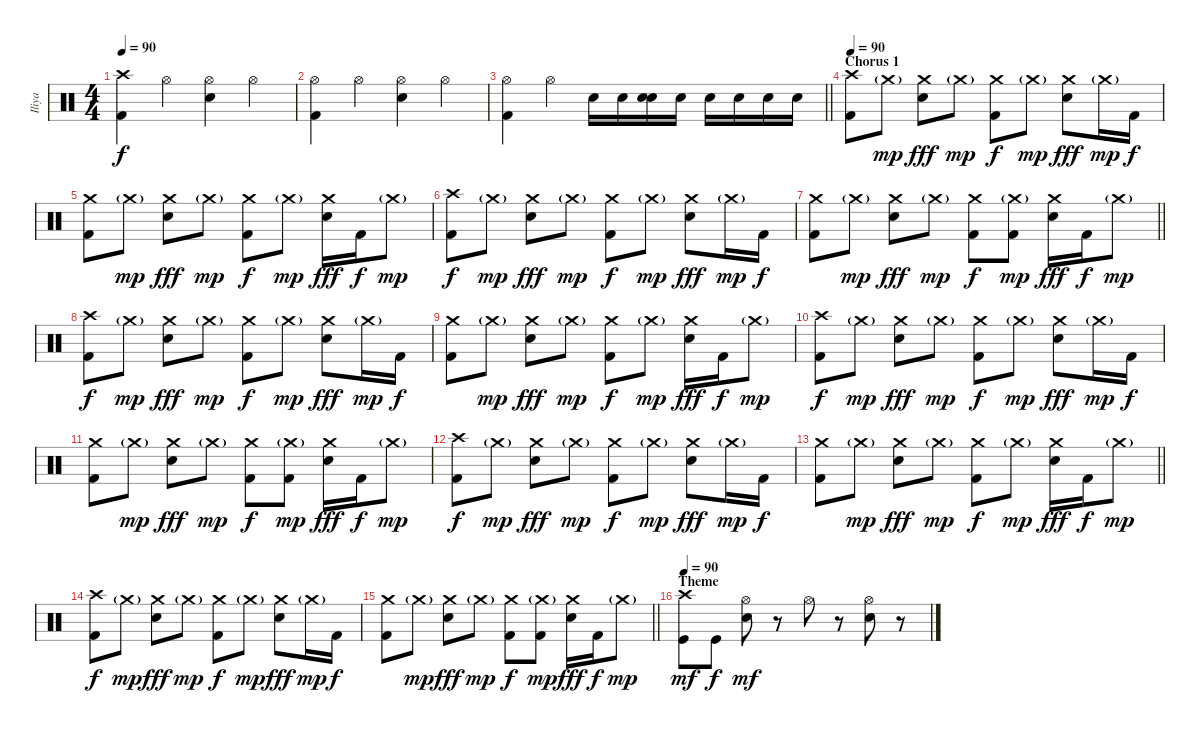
\track ("Iliya" "Iliya") {instrument percussion}
\staff {score}
\articulation defaults
\ts (4 4)
\tempo 90
\clef neutral
\ks c
("Kick (hit) 2" "Crash high (hit)").4{dy f} "Hi-Hat (open)".4 ("Electric Snare (hit)" "Hi-Hat (open)").4 "Hi-Hat (open)".4 |
("Hi-Hat (open)" "Kick (hit) 2").4 "Hi-Hat (open)".4 ("Electric Snare (hit)" "Hi-Hat (open)").4 "Hi-Hat (open)".4 |
\barLineRight lightlight
("Hi-Hat (open)" "Kick (hit) 2").4 "Hi-Hat (open)".4 "Snare (hit) 2".16 "Snare (hit) 2".16 ("Snare (hit) 2" "Snare (hit) 2").16 "Snare (hit) 2".16 "Snare (hit) 2".16 "Snare (hit) 2".16 "Snare (hit) 2".16 "Snare (hit) 2".16 |
\section ("" "Chorus 1")
\tempo 90
("Crash high (hit)" "Kick (hit) 2").8 "Crash medium (hit)"{g}.8{dy mp} ("Crash medium (hit)" "Snare (hit) 2").8{dy fff} "Crash medium (hit)"{g}.8{dy mp} ("Crash medium (hit)" "Kick (hit) 2").8{dy f} "Crash medium (hit)"{g}.8{dy mp} ("Crash medium (hit)" "Snare (hit) 2").8{dy fff} "Crash medium (hit)"{g}.16{dy mp} "Kick (hit) 2".16{dy f} |
("Crash medium (hit)" "Kick (hit) 2").8 "Crash medium (hit)"{g}.8{dy mp} ("Crash medium (hit)" "Snare (hit) 2").8{dy fff} "Crash medium (hit)"{g}.8{dy mp} ("Crash medium (hit)" "Kick (hit) 2").8{dy f} "Crash medium (hit)"{g}.8{dy mp} ("Crash medium (hit)" "Snare (hit) 2").16{dy fff} "Kick (hit) 2".16{dy f} "Crash medium (hit)"{g}.8{dy mp} |
("Crash high (hit)" "Kick (hit) 2").8{dy f} "Crash medium (hit)"{g}.8{dy mp} ("Crash medium (hit)" "Snare (hit) 2").8{dy fff} "Crash medium (hit)"{g}.8{dy mp} ("Crash medium (hit)" "Kick (hit) 2").8{dy f} "Crash medium (hit)"{g}.8{dy mp} ("Crash medium (hit)" "Snare (hit) 2").8{dy fff} "Crash medium (hit)"{g}.16{dy mp} "Kick (hit) 2".16{dy f} |
\barLineRight lightlight
("Crash medium (hit)" "Kick (hit) 2").8 "Crash medium (hit)"{g}.8{dy mp} ("Crash medium (hit)" "Snare (hit) 2").8{dy fff} "Crash medium (hit)"{g}.8{dy mp} ("Crash medium (hit)" "Kick (hit) 2").8{dy f} ("Crash medium (hit)"{g} "Kick (hit) 2").8{dy mp} ("Crash medium (hit)" "Snare (hit) 2").16{dy fff} "Kick (hit) 2".16{dy f} "Crash medium (hit)"{g}.8{dy mp} |
("Crash high (hit)" "Kick (hit) 2").8{dy f} "Crash medium (hit)"{g}.8{dy mp} ("Crash medium (hit)" "Snare (hit) 2").8{dy fff} "Crash medium (hit)"{g}.8{dy mp} ("Crash medium (hit)" "Kick (hit) 2").8{dy f} "Crash medium (hit)"{g}.8{dy mp} ("Crash medium (hit)" "Snare (hit) 2").8{dy fff} "Crash medium (hit)"{g}.16{dy mp} "Kick (hit) 2".16{dy f} |
("Crash medium (hit)" "Kick (hit) 2").8 "Crash medium (hit)"{g}.8{dy mp} ("Crash medium (hit)" "Snare (hit) 2").8{dy fff} "Crash medium (hit)"{g}.8{dy mp} ("Crash medium (hit)" "Kick (hit) 2").8{dy f} "Crash medium (hit)"{g}.8{dy mp} ("Crash medium (hit)" "Snare (hit) 2").16{dy fff} "Kick (hit) 2".16{dy f} "Crash medium (hit)"{g}.8{dy mp} |
("Crash high (hit)" "Kick (hit) 2").8{dy f} "Crash medium (hit)"{g}.8{dy mp} ("Crash medium (hit)" "Snare (hit) 2").8{dy fff} "Crash medium (hit)"{g}.8{dy mp} ("Crash medium (hit)" "Kick (hit) 2").8{dy f} "Crash medium (hit)"{g}.8{dy mp} ("Crash medium (hit)" "Snare (hit) 2").8{dy fff} "Crash medium (hit)"{g}.16{dy mp} "Kick (hit) 2".16{dy f} |
("Crash medium (hit)" "Kick (hit) 2").8 "Crash medium (hit)"{g}.8{dy mp} ("Crash medium (hit)" "Snare (hit) 2").8{dy fff} "Crash medium (hit)"{g}.8{dy mp} ("Crash medium (hit)" "Kick (hit) 2").8{dy f} ("Crash medium (hit)"{g} "Kick (hit) 2").8{dy mp} ("Crash medium (hit)" "Snare (hit) 2").16{dy fff} "Kick (hit) 2".16{dy f} "Crash medium (hit)"{g}.8{dy mp} |
("Crash high (hit)" "Kick (hit) 2").8{dy f} "Crash medium (hit)"{g}.8{dy mp} ("Crash medium (hit)" "Snare (hit) 2").8{dy fff} "Crash medium (hit)"{g}.8{dy mp} ("Crash medium (hit)" "Kick (hit) 2").8{dy f} "Crash medium (hit)"{g}.8{dy mp} ("Crash medium (hit)" "Snare (hit) 2").8{dy fff} "Crash medium (hit)"{g}.16{dy mp} "Kick (hit) 2".16{dy f} |
\barLineRight lightlight
("Crash medium (hit)" "Kick (hit) 2").8 "Crash medium (hit)"{g}.8{dy mp} ("Crash medium (hit)" "Snare (hit) 2").8{dy fff} "Crash medium (hit)"{g}.8{dy mp} ("Crash medium (hit)" "Kick (hit) 2").8{dy f} "Crash medium (hit)"{g}.8{dy mp} ("Crash medium (hit)" "Snare (hit) 2").16{dy fff} "Kick (hit) 2".16{dy f} "Crash medium (hit)"{g}.8{dy mp} |
("Crash high (hit)" "Kick (hit) 2").8{dy f} "Crash medium (hit)"{g}.8{dy mp} ("Crash medium (hit)" "Snare (hit) 2").8{dy fff} "Crash medium (hit)"{g}.8{dy mp} ("Crash medium (hit)" "Kick (hit) 2").8{dy f} "Crash medium (hit)"{g}.8{dy mp} ("Crash medium (hit)" "Snare (hit) 2").8{dy fff} "Crash medium (hit)"{g}.16{dy mp} "Kick (hit) 2".16{dy f} |
\barLineRight lightlight
("Crash medium (hit)" "Kick (hit) 2").8 "Crash medium (hit)"{g}.8{dy mp} ("Crash medium (hit)" "Snare (hit) 2").8{dy fff} "Crash medium (hit)"{g}.8{dy mp} ("Crash medium (hit)" "Kick (hit) 2").8{dy f} ("Crash medium (hit)"{g} "Kick (hit) 2").8{dy mp} ("Crash medium (hit)" "Snare (hit) 2").16{dy fff} "Kick (hit) 2".16{dy f} "Crash medium (hit)"{g}.8{dy mp} |
\section ("" "Theme")
\tempo 90
("Kick (hit)" "Crash high (hit)").8{dy mf} "Kick (hit)".8{dy f} ("Electric Snare (hit)" "Hi-Hat (open)").8{dy mf} r.8 "Hi-Hat (open)".8 r.8 ("Electric Snare (hit)" "Hi-Hat (open)").8 r.8
